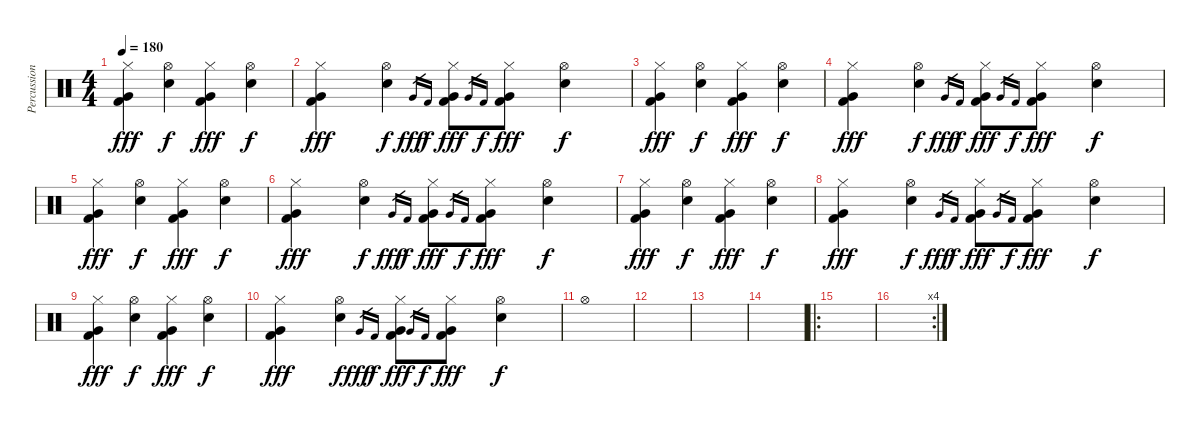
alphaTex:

\track ("Percussion" "Percussion") {instrument percussion}
\staff {score}
\articulation defaults
\ts (4 4)
\tempo 180
\clef neutral
\ks c
("Hi-Hat (closed)" "Very Low Tom (hit)" "Kick (hit) 2").4{dy fff} ("Hi-Hat (open)" "Electric Snare (hit)").4{dy f} ("Hi-Hat (closed)" "Very Low Tom (hit)" "Kick (hit) 2").4{dy fff} ("Hi-Hat (open)" "Electric Snare (hit)").4{dy f} |
("Hi-Hat (closed)" "Very Low Tom (hit)" "Kick (hit) 2").4{dy fff} ("Hi-Hat (open)" "Electric Snare (hit)").4{dy f} "Very Low Tom (hit)".16{gr dy fff} "Kick (hit) 2".16{gr dy f} ("Hi-Hat (closed)" "Very Low Tom (hit)" "Kick (hit) 2").8{dy fff} "Very Low Tom (hit)".16{gr} "Kick (hit) 2".16{gr dy f} ("Hi-Hat (closed)" "Very Low Tom (hit)" "Kick (hit) 2").8{dy fff} ("Hi-Hat (open)" "Electric Snare (hit)").4{dy f} |
("Hi-Hat (closed)" "Very Low Tom (hit)" "Kick (hit) 2").4{dy fff} ("Hi-Hat (open)" "Electric Snare (hit)").4{dy f} ("Hi-Hat (closed)" "Very Low Tom (hit)" "Kick (hit) 2").4{dy fff} ("Hi-Hat (open)" "Electric Snare (hit)").4{dy f} |
("Hi-Hat (closed)" "Very Low Tom (hit)" "Kick (hit) 2").4{dy fff} ("Hi-Hat (open)" "Electric Snare (hit)").4{dy f} "Very Low Tom (hit)".16{gr dy fff} "Kick (hit) 2".16{gr dy f} ("Hi-Hat (closed)" "Very Low Tom (hit)" "Kick (hit) 2").8{dy fff} "Very Low Tom (hit)".16{gr} "Kick (hit) 2".16{gr dy f} ("Hi-Hat (closed)" "Very Low Tom (hit)" "Kick (hit) 2").8{dy fff} ("Hi-Hat (open)" "Electric Snare (hit)").4{dy f} |
("Hi-Hat (closed)" "Very Low Tom (hit)" "Kick (hit) 2").4{dy fff} ("Hi-Hat (open)" "Electric Snare (hit)").4{dy f} ("Hi-Hat (closed)" "Very Low Tom (hit)" "Kick (hit) 2").4{dy fff} ("Hi-Hat (open)" "Electric Snare (hit)").4{dy f} |
("Hi-Hat (closed)" "Very Low Tom (hit)" "Kick (hit) 2").4{dy fff} ("Hi-Hat (open)" "Electric Snare (hit)").4{dy f} "Very Low Tom (hit)".16{gr dy fff} "Kick (hit) 2".16{gr dy f} ("Hi-Hat (closed)" "Very Low Tom (hit)" "Kick (hit) 2").8{dy fff} "Very Low Tom (hit)".16{gr} "Kick (hit) 2".16{gr dy f} ("Hi-Hat (closed)" "Very Low Tom (hit)" "Kick (hit) 2").8{dy fff} ("Hi-Hat (open)" "Electric Snare (hit)").4{dy f} |
("Hi-Hat (closed)" "Very Low Tom (hit)" "Kick (hit) 2").4{dy fff} ("Hi-Hat (open)" "Electric Snare (hit)").4{dy f} ("Hi-Hat (closed)" "Very Low Tom (hit)" "Kick (hit) 2").4{dy fff} ("Hi-Hat (open)" "Electric Snare (hit)").4{dy f} |
("Hi-Hat (closed)" "Very Low Tom (hit)" "Kick (hit) 2").4{dy fff} ("Hi-Hat (open)" "Electric Snare (hit)").4{dy f} "Very Low Tom (hit)".16{gr dy fff} "Kick (hit) 2".16{gr dy f} ("Hi-Hat (closed)" "Very Low Tom (hit)" "Kick (hit) 2").8{dy fff} "Very Low Tom (hit)".16{gr} "Kick (hit) 2".16{gr dy f} ("Hi-Hat (closed)" "Very Low Tom (hit)" "Kick (hit) 2").8{dy fff} ("Hi-Hat (open)" "Electric Snare (hit)").4{dy f} |
("Hi-Hat (closed)" "Very Low Tom (hit)" "Kick (hit) 2").4{dy fff} ("Hi-Hat (open)" "Electric Snare (hit)").4{dy f} ("Hi-Hat (closed)" "Very Low Tom (hit)" "Kick (hit) 2").4{dy fff} ("Hi-Hat (open)" "Electric Snare (hit)").4{dy f} |
("Hi-Hat (closed)" "Very Low Tom (hit)" "Kick (hit) 2").4{dy fff} ("Hi-Hat (open)" "Electric Snare (hit)").4{dy f} "Very Low Tom (hit)".16{gr dy fff} "Kick (hit) 2".16{gr dy f} ("Hi-Hat (closed)" "Very Low Tom (hit)" "Kick (hit) 2").8{dy fff} "Very Low Tom (hit)".16{gr} "Kick (hit) 2".16{gr dy f} ("Hi-Hat (closed)" "Very Low Tom (hit)" "Kick (hit) 2").8{dy fff} ("Hi-Hat (open)" "Electric Snare (hit)").4{dy f} |
"Hi-Hat (open)".1 |
|
|
|
\ro
|
\rc 4
